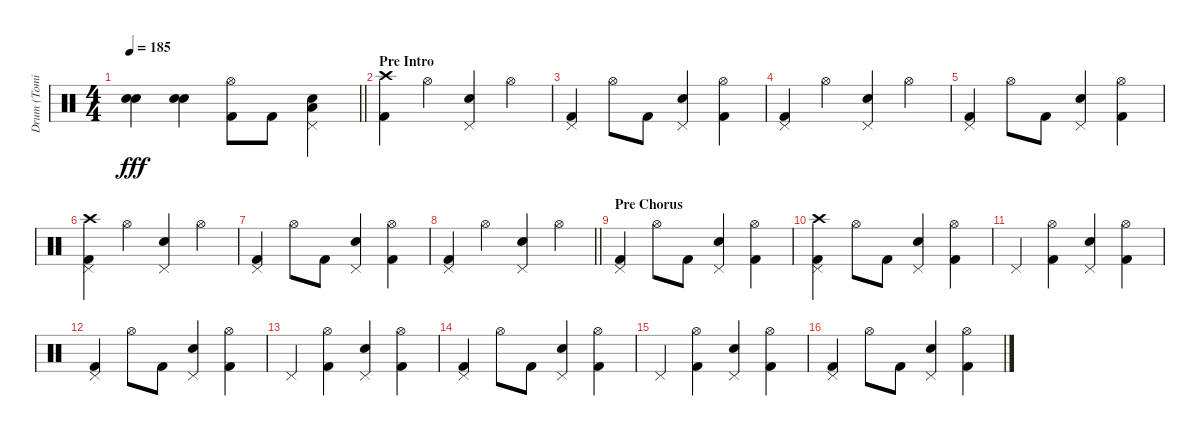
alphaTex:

\track ("Drum (Tomi)" "Drum (Tomi") {instrument percussion}
\staff {score}
\articulation defaults
\ts (4 4)
\tempo 185
\clef neutral
\barLineRight lightlight
\ks c
("Electric Snare (hit)" "Electric Snare (hit)").4{bd 240 dy fff} ("Electric Snare (hit)" "Electric Snare (hit)").4{bd 240} ("Kick (hit) 2" "Hi-Hat (open)").8 "Kick (hit) 2".8 ("Pedal Hi-Hat (hit)" "Low Floor Tom (hit)" "Electric Snare (hit)").4 |
\section ("" "Pre Intro")
("Kick (hit) 2" "Crash high (hit)").4 "Hi-Hat (open)".4 ("Pedal Hi-Hat (hit)" "Electric Snare (hit)").4 "Hi-Hat (open)".4 |
("Kick (hit) 2" "Pedal Hi-Hat (hit)").4 "Hi-Hat (open)".8 "Kick (hit) 2".8 ("Pedal Hi-Hat (hit)" "Electric Snare (hit)").4 ("Hi-Hat (open)" "Kick (hit) 2").4 |
("Pedal Hi-Hat (hit)" "Kick (hit) 2").4 "Hi-Hat (open)".4 ("Pedal Hi-Hat (hit)" "Electric Snare (hit)").4 "Hi-Hat (open)".4 |
("Pedal Hi-Hat (hit)" "Kick (hit) 2").4 "Hi-Hat (open)".8 "Kick (hit) 2".8 ("Pedal Hi-Hat (hit)" "Electric Snare (hit)").4 ("Hi-Hat (open)" "Kick (hit) 2").4 |
("Crash high (hit)" "Pedal Hi-Hat (hit)" "Kick (hit) 2").4 "Hi-Hat (open)".4 ("Pedal Hi-Hat (hit)" "Electric Snare (hit)").4 "Hi-Hat (open)".4 |
("Kick (hit) 2" "Pedal Hi-Hat (hit)").4 "Hi-Hat (open)".8 "Kick (hit) 2".8 ("Pedal Hi-Hat (hit)" "Electric Snare (hit)").4 ("Hi-Hat (open)" "Kick (hit) 2").4 |
\barLineRight lightlight
("Pedal Hi-Hat (hit)" "Kick (hit) 2").4 "Hi-Hat (open)".4 ("Pedal Hi-Hat (hit)" "Electric Snare (hit)").4 "Hi-Hat (open)".4 |
\section ("" "Pre Chorus")
("Kick (hit) 2" "Pedal Hi-Hat (hit)").4 "Hi-Hat (open)".8 "Kick (hit) 2".8 ("Pedal Hi-Hat (hit)" "Electric Snare (hit)").4 ("Hi-Hat (open)" "Kick (hit) 2").4 |
("Pedal Hi-Hat (hit)" "Crash high (hit)" "Kick (hit) 2").4 "Hi-Hat (open)".8 "Kick (hit) 2".8 ("Pedal Hi-Hat (hit)" "Electric Snare (hit)").4 ("Hi-Hat (open)" "Kick (hit) 2").4 |
"Pedal Hi-Hat (hit)".4 ("Hi-Hat (open)" "Kick (hit) 2").4 ("Pedal Hi-Hat (hit)" "Electric Snare (hit)").4 ("Hi-Hat (open)" "Kick (hit) 2").4 |
("Pedal Hi-Hat (hit)" "Kick (hit) 2").4 "Hi-Hat (open)".8 "Kick (hit) 2".8 ("Pedal Hi-Hat (hit)" "Electric Snare (hit)").4 ("Hi-Hat (open)" "Kick (hit) 2").4 |
"Pedal Hi-Hat (hit)".4 ("Hi-Hat (open)" "Kick (hit) 2").4 ("Pedal Hi-Hat (hit)" "Electric Snare (hit)").4 ("Hi-Hat (open)" "Kick (hit) 2").4 |
("Pedal Hi-Hat (hit)" "Kick (hit) 2").4 "Hi-Hat (open)".8 "Kick (hit) 2".8 ("Pedal Hi-Hat (hit)" "Electric Snare (hit)").4 ("Hi-Hat (open)" "Kick (hit) 2").4 |
"Pedal Hi-Hat (hit)".4 ("Hi-Hat (open)" "Kick (hit) 2").4 ("Pedal Hi-Hat (hit)" "Electric Snare (hit)").4 ("Hi-Hat (open)" "Kick (hit) 2").4 |
("Pedal Hi-Hat (hit)" "Kick (hit) 2").4 "Hi-Hat (open)".8 "Kick (hit) 2".8 ("Pedal Hi-Hat (hit)" "Electric Snare (hit)").4 ("Hi-Hat (open)" "Kick (hit) 2").4
